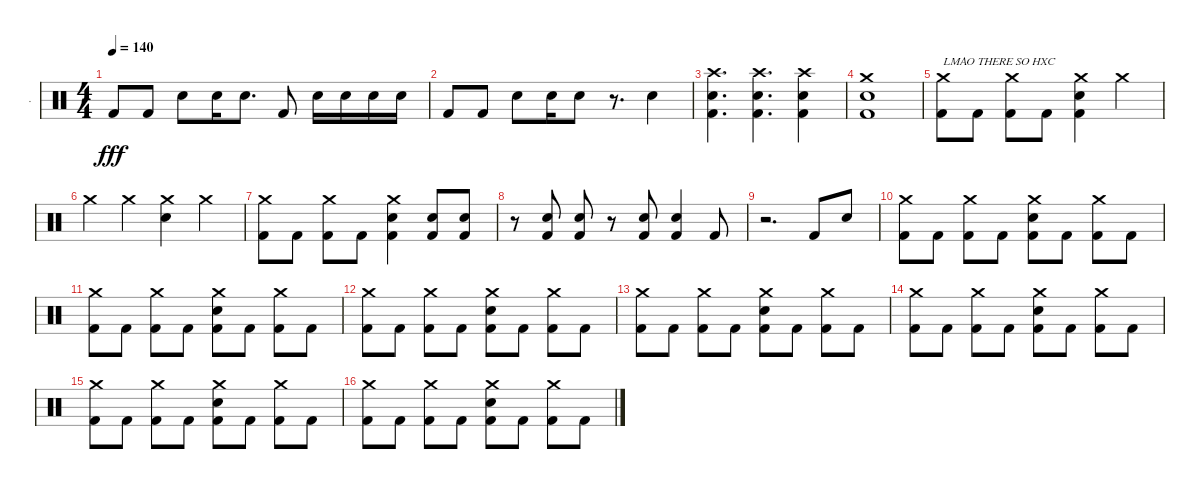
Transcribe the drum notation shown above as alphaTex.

\track ("." ".") {instrument percussion}
\staff {score}
\articulation defaults
\ts (4 4)
\tempo 140
\clef neutral
\ks c "Kick (hit) 2".8{dy fff} "Kick (hit) 2".8 "Electric Snare (hit)".8 "Electric Snare (hit)".16 "Electric Snare (hit)".8{d} "Kick (hit) 2".8 "Electric Snare (hit)".16 "Electric Snare (hit)".16 "Electric Snare (hit)".16 "Electric Snare (hit)".16
|
"Kick (hit) 2".8 "Kick (hit) 2".8 "Electric Snare (hit)".8 "Electric Snare (hit)".16 "Electric Snare (hit)".8 r.8{d} "Electric Snare (hit)".4 |
("Crash high (hit)" "Electric Snare (hit)" "Kick (hit) 2").4{d} ("Crash high (hit)" "Electric Snare (hit)" "Kick (hit) 2").4{d} ("Crash high (hit)" "Electric Snare (hit)" "Kick (hit) 2").4 |
("Crash medium (hit)" "Electric Snare (hit)" "Kick (hit) 2").1 |
("Crash medium (hit)" "Kick (hit) 2").8{txt "LMAO THERE SO HXC"} "Kick (hit) 2".8 ("Crash medium (hit)" "Kick (hit) 2").8 "Kick (hit) 2".8 ("Crash medium (hit)" "Electric Snare (hit)" "Kick (hit) 2").4 "Crash medium (hit)".4 |
"Crash medium (hit)".4 "Crash medium (hit)".4 ("Crash medium (hit)" "Electric Snare (hit)").4 "Crash medium (hit)".4 |
("Crash medium (hit)" "Kick (hit) 2").8 "Kick (hit) 2".8 ("Crash medium (hit)" "Kick (hit) 2").8 "Kick (hit) 2".8 ("Crash medium (hit)" "Electric Snare (hit)" "Kick (hit) 2").4 ("Electric Snare (hit)" "Kick (hit) 2").8 ("Electric Snare (hit)" "Kick (hit) 2").8 |
r.8 ("Electric Snare (hit)" "Kick (hit) 2").8 ("Electric Snare (hit)" "Kick (hit) 2").8 r.8 ("Electric Snare (hit)" "Kick (hit) 2").8 ("Electric Snare (hit)" "Kick (hit) 2").4 "Kick (hit) 2".8 |
r.2{d} "Kick (hit) 2".8 "Electric Snare (hit)".8 |
("Crash medium (hit)" "Kick (hit) 2").8 "Kick (hit) 2".8 ("Crash medium (hit)" "Kick (hit) 2").8 "Kick (hit) 2".8 ("Crash medium (hit)" "Electric Snare (hit)" "Kick (hit) 2").8 "Kick (hit) 2".8 ("Crash medium (hit)" "Kick (hit) 2").8 "Kick (hit) 2".8 |
("Crash medium (hit)" "Kick (hit) 2").8 "Kick (hit) 2".8 ("Crash medium (hit)" "Kick (hit) 2").8 "Kick (hit) 2".8 ("Crash medium (hit)" "Electric Snare (hit)" "Kick (hit) 2").8 "Kick (hit) 2".8 ("Crash medium (hit)" "Kick (hit) 2").8 "Kick (hit) 2".8 |
("Crash medium (hit)" "Kick (hit) 2").8 "Kick (hit) 2".8 ("Crash medium (hit)" "Kick (hit) 2").8 "Kick (hit) 2".8 ("Crash medium (hit)" "Electric Snare (hit)" "Kick (hit) 2").8 "Kick (hit) 2".8 ("Crash medium (hit)" "Kick (hit) 2").8 "Kick (hit) 2".8 |
("Crash medium (hit)" "Kick (hit) 2").8 "Kick (hit) 2".8 ("Crash medium (hit)" "Kick (hit) 2").8 "Kick (hit) 2".8 ("Crash medium (hit)" "Electric Snare (hit)" "Kick (hit) 2").8 "Kick (hit) 2".8 ("Crash medium (hit)" "Kick (hit) 2").8 "Kick (hit) 2".8 |
("Crash medium (hit)" "Kick (hit) 2").8 "Kick (hit) 2".8 ("Crash medium (hit)" "Kick (hit) 2").8 "Kick (hit) 2".8 ("Crash medium (hit)" "Electric Snare (hit)" "Kick (hit) 2").8 "Kick (hit) 2".8 ("Crash medium (hit)" "Kick (hit) 2").8 "Kick (hit) 2".8 |
("Crash medium (hit)" "Kick (hit) 2").8 "Kick (hit) 2".8 ("Crash medium (hit)" "Kick (hit) 2").8 "Kick (hit) 2".8 ("Crash medium (hit)" "Electric Snare (hit)" "Kick (hit) 2").8 "Kick (hit) 2".8 ("Crash medium (hit)" "Kick (hit) 2").8 "Kick (hit) 2".8 |
("Crash medium (hit)" "Kick (hit) 2").8 "Kick (hit) 2".8 ("Crash medium (hit)" "Kick (hit) 2").8 "Kick (hit) 2".8 ("Crash medium (hit)" "Electric Snare (hit)" "Kick (hit) 2").8 "Kick (hit) 2".8 ("Crash medium (hit)" "Kick (hit) 2").8 "Kick (hit) 2".8
